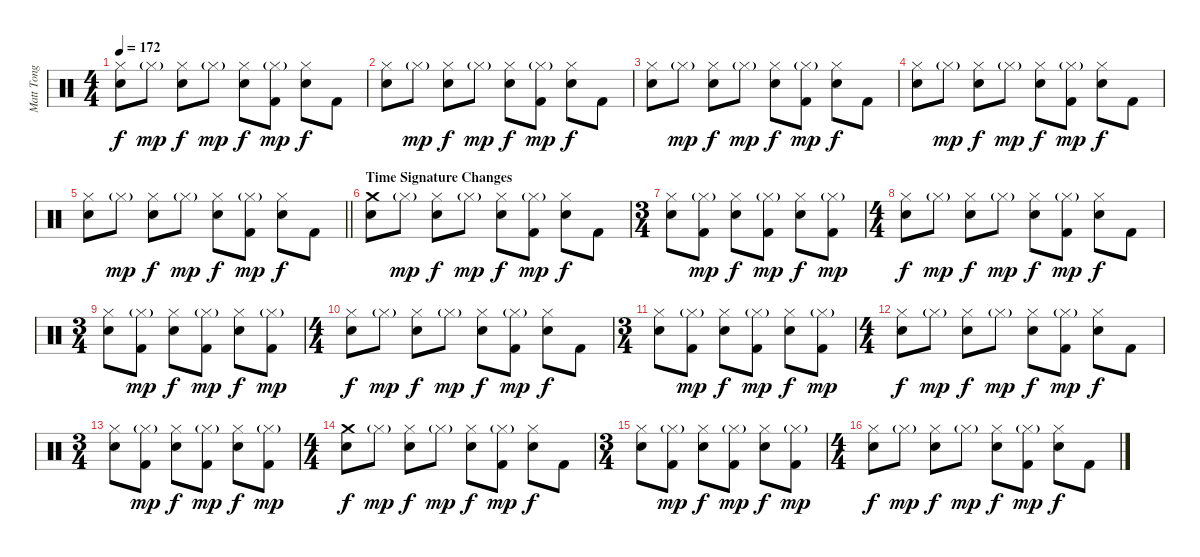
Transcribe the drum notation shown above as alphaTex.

\track ("Matt Tong" "Matt Tong") {instrument percussion}
\staff {score}
\articulation defaults
\ts (4 4)
\tempo 172
\clef neutral
\ks c
("Hi-Hat (closed)" "Snare (hit) 2").8{dy f} "Hi-Hat (closed)"{g}.8{dy mp} ("Hi-Hat (closed)" "Snare (hit) 2").8{dy f} "Hi-Hat (closed)"{g}.8{dy mp} ("Hi-Hat (closed)" "Snare (hit) 2").8{dy f} ("Hi-Hat (closed)"{g} "Kick (hit) 2").8{dy mp} ("Hi-Hat (closed)" "Snare (hit) 2").8{dy f} "Kick (hit) 2".8 |
("Hi-Hat (closed)" "Snare (hit) 2").8 "Hi-Hat (closed)"{g}.8{dy mp} ("Hi-Hat (closed)" "Snare (hit) 2").8{dy f} "Hi-Hat (closed)"{g}.8{dy mp} ("Hi-Hat (closed)" "Snare (hit) 2").8{dy f} ("Hi-Hat (closed)"{g} "Kick (hit) 2").8{dy mp} ("Hi-Hat (closed)" "Snare (hit) 2").8{dy f} "Kick (hit) 2".8 |
("Hi-Hat (closed)" "Snare (hit) 2").8 "Hi-Hat (closed)"{g}.8{dy mp} ("Hi-Hat (closed)" "Snare (hit) 2").8{dy f} "Hi-Hat (closed)"{g}.8{dy mp} ("Hi-Hat (closed)" "Snare (hit) 2").8{dy f} ("Hi-Hat (closed)"{g} "Kick (hit) 2").8{dy mp} ("Hi-Hat (closed)" "Snare (hit) 2").8{dy f} "Kick (hit) 2".8 |
("Hi-Hat (closed)" "Snare (hit) 2").8 "Hi-Hat (closed)"{g}.8{dy mp} ("Hi-Hat (closed)" "Snare (hit) 2").8{dy f} "Hi-Hat (closed)"{g}.8{dy mp} ("Hi-Hat (closed)" "Snare (hit) 2").8{dy f} ("Hi-Hat (closed)"{g} "Kick (hit) 2").8{dy mp} ("Hi-Hat (closed)" "Snare (hit) 2").8{dy f} "Kick (hit) 2".8 |
\barLineRight lightlight
("Hi-Hat (closed)" "Snare (hit) 2").8 "Hi-Hat (closed)"{g}.8{dy mp} ("Hi-Hat (closed)" "Snare (hit) 2").8{dy f} "Hi-Hat (closed)"{g}.8{dy mp} ("Hi-Hat (closed)" "Snare (hit) 2").8{dy f} ("Hi-Hat (closed)"{g} "Kick (hit) 2").8{dy mp} ("Hi-Hat (closed)" "Snare (hit) 2").8{dy f} "Kick (hit) 2".8 |
\section ("" "Time Signature Changes")
("Crash medium (hit)" "Snare (hit) 2").8 "Hi-Hat (closed)"{g}.8{dy mp} ("Hi-Hat (closed)" "Snare (hit) 2").8{dy f} "Hi-Hat (closed)"{g}.8{dy mp} ("Hi-Hat (closed)" "Snare (hit) 2").8{dy f} ("Hi-Hat (closed)"{g} "Kick (hit) 2").8{dy mp} ("Hi-Hat (closed)" "Snare (hit) 2").8{dy f} "Kick (hit) 2".8 |
\ts (3 4)
("Hi-Hat (closed)" "Snare (hit) 2").8 ("Hi-Hat (closed)"{g} "Kick (hit) 2").8{dy mp} ("Hi-Hat (closed)" "Snare (hit) 2").8{dy f} ("Hi-Hat (closed)"{g} "Kick (hit) 2").8{dy mp} ("Hi-Hat (closed)" "Snare (hit) 2").8{dy f} ("Hi-Hat (closed)"{g} "Kick (hit) 2").8{dy mp} |
\ts (4 4)
("Hi-Hat (closed)" "Snare (hit) 2").8{dy f} "Hi-Hat (closed)"{g}.8{dy mp} ("Hi-Hat (closed)" "Snare (hit) 2").8{dy f} "Hi-Hat (closed)"{g}.8{dy mp} ("Hi-Hat (closed)" "Snare (hit) 2").8{dy f} ("Hi-Hat (closed)"{g} "Kick (hit) 2").8{dy mp} ("Hi-Hat (closed)" "Snare (hit) 2").8{dy f} "Kick (hit) 2".8 |
\ts (3 4)
("Hi-Hat (closed)" "Snare (hit) 2").8 ("Hi-Hat (closed)"{g} "Kick (hit) 2").8{dy mp} ("Hi-Hat (closed)" "Snare (hit) 2").8{dy f} ("Hi-Hat (closed)"{g} "Kick (hit) 2").8{dy mp} ("Hi-Hat (closed)" "Snare (hit) 2").8{dy f} ("Hi-Hat (closed)"{g} "Kick (hit) 2").8{dy mp} |
\ts (4 4)
("Hi-Hat (closed)" "Snare (hit) 2").8{dy f} "Hi-Hat (closed)"{g}.8{dy mp} ("Hi-Hat (closed)" "Snare (hit) 2").8{dy f} "Hi-Hat (closed)"{g}.8{dy mp} ("Hi-Hat (closed)" "Snare (hit) 2").8{dy f} ("Hi-Hat (closed)"{g} "Kick (hit) 2").8{dy mp} ("Hi-Hat (closed)" "Snare (hit) 2").8{dy f} "Kick (hit) 2".8 |
\ts (3 4)
("Hi-Hat (closed)" "Snare (hit) 2").8 ("Hi-Hat (closed)"{g} "Kick (hit) 2").8{dy mp} ("Hi-Hat (closed)" "Snare (hit) 2").8{dy f} ("Hi-Hat (closed)"{g} "Kick (hit) 2").8{dy mp} ("Hi-Hat (closed)" "Snare (hit) 2").8{dy f} ("Hi-Hat (closed)"{g} "Kick (hit) 2").8{dy mp} |
\ts (4 4)
("Hi-Hat (closed)" "Snare (hit) 2").8{dy f} "Hi-Hat (closed)"{g}.8{dy mp} ("Hi-Hat (closed)" "Snare (hit) 2").8{dy f} "Hi-Hat (closed)"{g}.8{dy mp} ("Hi-Hat (closed)" "Snare (hit) 2").8{dy f} ("Hi-Hat (closed)"{g} "Kick (hit) 2").8{dy mp} ("Hi-Hat (closed)" "Snare (hit) 2").8{dy f} "Kick (hit) 2".8 |
\ts (3 4)
("Hi-Hat (closed)" "Snare (hit) 2").8 ("Hi-Hat (closed)"{g} "Kick (hit) 2").8{dy mp} ("Hi-Hat (closed)" "Snare (hit) 2").8{dy f} ("Hi-Hat (closed)"{g} "Kick (hit) 2").8{dy mp} ("Hi-Hat (closed)" "Snare (hit) 2").8{dy f} ("Hi-Hat (closed)"{g} "Kick (hit) 2").8{dy mp} |
\ts (4 4)
("Crash medium (hit)" "Snare (hit) 2").8{dy f} "Hi-Hat (closed)"{g}.8{dy mp} ("Hi-Hat (closed)" "Snare (hit) 2").8{dy f} "Hi-Hat (closed)"{g}.8{dy mp} ("Hi-Hat (closed)" "Snare (hit) 2").8{dy f} ("Hi-Hat (closed)"{g} "Kick (hit) 2").8{dy mp} ("Hi-Hat (closed)" "Snare (hit) 2").8{dy f} "Kick (hit) 2".8 |
\ts (3 4)
("Hi-Hat (closed)" "Snare (hit) 2").8 ("Hi-Hat (closed)"{g} "Kick (hit) 2").8{dy mp} ("Hi-Hat (closed)" "Snare (hit) 2").8{dy f} ("Hi-Hat (closed)"{g} "Kick (hit) 2").8{dy mp} ("Hi-Hat (closed)" "Snare (hit) 2").8{dy f} ("Hi-Hat (closed)"{g} "Kick (hit) 2").8{dy mp} |
\ts (4 4)
("Hi-Hat (closed)" "Snare (hit) 2").8{dy f} "Hi-Hat (closed)"{g}.8{dy mp} ("Hi-Hat (closed)" "Snare (hit) 2").8{dy f} "Hi-Hat (closed)"{g}.8{dy mp} ("Hi-Hat (closed)" "Snare (hit) 2").8{dy f} ("Hi-Hat (closed)"{g} "Kick (hit) 2").8{dy mp} ("Hi-Hat (closed)" "Snare (hit) 2").8{dy f} "Kick (hit) 2".8
